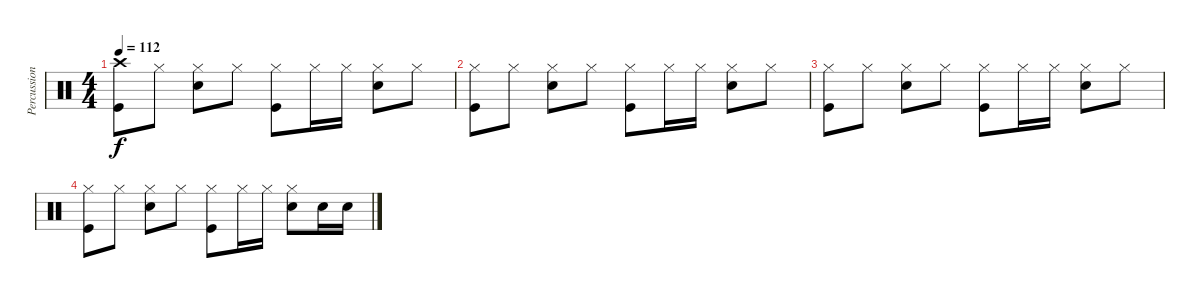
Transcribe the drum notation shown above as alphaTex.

\track ("Percussion" "Percussion") {instrument percussion}
\staff {score}
\articulation defaults
\ts (4 4)
\tempo 112
\clef neutral
\ks c
("Crash high (hit)" "Kick (hit)").8{dy f} "Hi-Hat (closed)".8 ("Hi-Hat (closed)" "Snare (hit) 2").8 "Hi-Hat (closed)".8 ("Hi-Hat (closed)" "Kick (hit)").8 "Hi-Hat (closed)".16 "Hi-Hat (closed)".16 ("Hi-Hat (closed)" "Snare (hit) 2").8 "Hi-Hat (closed)".8 |
("Hi-Hat (closed)" "Kick (hit)").8 "Hi-Hat (closed)".8 ("Hi-Hat (closed)" "Snare (hit) 2").8 "Hi-Hat (closed)".8 ("Hi-Hat (closed)" "Kick (hit)").8 "Hi-Hat (closed)".16 "Hi-Hat (closed)".16 ("Hi-Hat (closed)" "Snare (hit) 2").8 "Hi-Hat (closed)".8 |
("Hi-Hat (closed)" "Kick (hit)").8 "Hi-Hat (closed)".8 ("Hi-Hat (closed)" "Snare (hit) 2").8 "Hi-Hat (closed)".8 ("Hi-Hat (closed)" "Kick (hit)").8 "Hi-Hat (closed)".16 "Hi-Hat (closed)".16 ("Hi-Hat (closed)" "Snare (hit) 2").8 "Hi-Hat (closed)".8 |
("Hi-Hat (closed)" "Kick (hit)").8 "Hi-Hat (closed)".8 ("Hi-Hat (closed)" "Snare (hit) 2").8 "Hi-Hat (closed)".8 ("Hi-Hat (closed)" "Kick (hit)").8 "Hi-Hat (closed)".16 "Hi-Hat (closed)".16 ("Hi-Hat (closed)" "Snare (hit) 2").8 "Snare (hit) 2".16 "Snare (hit) 2".16
